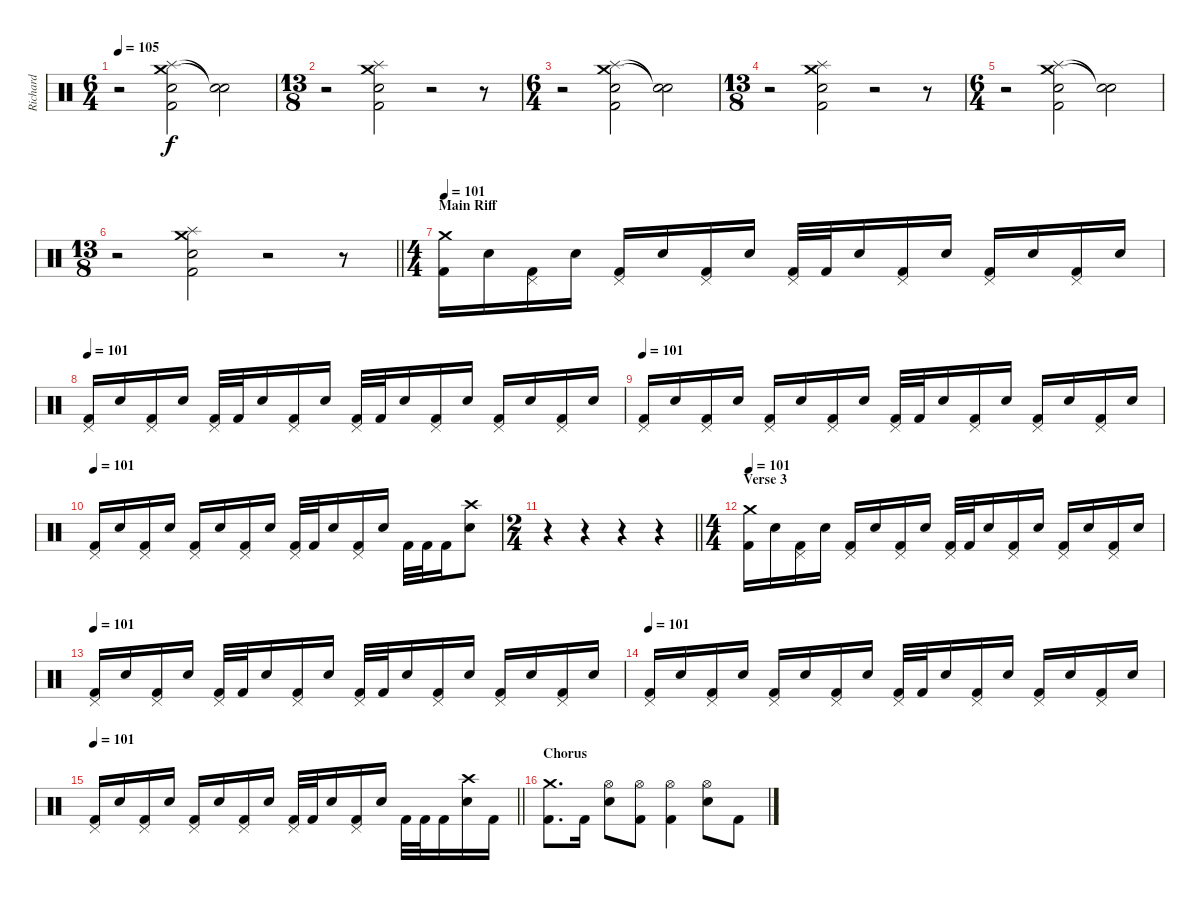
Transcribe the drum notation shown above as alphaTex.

\track ("Richard" "Richard") {instrument percussion}
\staff {score}
\articulation defaults
\ts (6 4)
\tempo 105
\clef neutral
\ks c
r.2{dy f} ("Crash medium (hit)" "Splash (hit)" "Electric Snare (hit)" "Kick (hit) 2").2{volume 16 balance 8} ("Snare (hit)"{t} "Snare (hit)"{t}).2 |
\ts (13 8)
r.2 ("Crash medium (hit)" "Splash (hit)" "Electric Snare (hit)" "Kick (hit) 2").2 r.2 r.8 |
\ts (6 4)
r.2 ("Crash medium (hit)" "Splash (hit)" "Electric Snare (hit)" "Kick (hit) 2").2{volume 16 balance 8} ("Snare (hit)"{t} "Snare (hit)"{t}).2 |
\ts (13 8)
r.2 ("Crash medium (hit)" "Splash (hit)" "Electric Snare (hit)" "Kick (hit) 2").2 r.2 r.8 |
\ts (6 4)
r.2 ("Crash medium (hit)" "Splash (hit)" "Electric Snare (hit)" "Kick (hit) 2").2{volume 16 balance 8} ("Snare (hit)"{t} "Snare (hit)"{t}).2 |
\ts (13 8)
\barLineRight lightlight
r.2 ("Crash medium (hit)" "Splash (hit)" "Electric Snare (hit)" "Kick (hit) 2").2 r.2 r.8 |
\ts (4 4)
\section ("" "Main Riff")
\tempo 101
("Crash medium (hit)" "Kick (hit) 2").16 "Electric Snare (hit)".16 ("Pedal Hi-Hat (hit)" "Kick (hit) 2").16 "Electric Snare (hit)".16 ("Pedal Hi-Hat (hit)" "Kick (hit) 2").16 "Electric Snare (hit)".16 ("Pedal Hi-Hat (hit)" "Kick (hit) 2").16 "Electric Snare (hit)".16 ("Pedal Hi-Hat (hit)" "Kick (hit) 2").32 "Kick (hit) 2".32 "Electric Snare (hit)".16 ("Pedal Hi-Hat (hit)" "Kick (hit) 2").16 "Electric Snare (hit)".16 ("Pedal Hi-Hat (hit)" "Kick (hit) 2").16 "Electric Snare (hit)".16 ("Pedal Hi-Hat (hit)" "Kick (hit) 2").16 "Electric Snare (hit)".16 |
\tempo 101
("Pedal Hi-Hat (hit)" "Kick (hit) 2").16 "Electric Snare (hit)".16 ("Pedal Hi-Hat (hit)" "Kick (hit) 2").16 "Electric Snare (hit)".16 ("Pedal Hi-Hat (hit)" "Kick (hit) 2").32 "Kick (hit) 2".32 "Electric Snare (hit)".16 ("Pedal Hi-Hat (hit)" "Kick (hit) 2").16 "Electric Snare (hit)".16 ("Pedal Hi-Hat (hit)" "Kick (hit) 2").32 "Kick (hit) 2".32 "Electric Snare (hit)".16 ("Pedal Hi-Hat (hit)" "Kick (hit) 2").16 "Electric Snare (hit)".16 ("Pedal Hi-Hat (hit)" "Kick (hit) 2").16 "Electric Snare (hit)".16 ("Pedal Hi-Hat (hit)" "Kick (hit) 2").16 "Electric Snare (hit)".16 |
\tempo 101
("Pedal Hi-Hat (hit)" "Kick (hit) 2").16 "Electric Snare (hit)".16 ("Pedal Hi-Hat (hit)" "Kick (hit) 2").16 "Electric Snare (hit)".16 ("Pedal Hi-Hat (hit)" "Kick (hit) 2").16 "Electric Snare (hit)".16 ("Pedal Hi-Hat (hit)" "Kick (hit) 2").16 "Electric Snare (hit)".16 ("Pedal Hi-Hat (hit)" "Kick (hit) 2").32 "Kick (hit) 2".32 "Electric Snare (hit)".16 ("Pedal Hi-Hat (hit)" "Kick (hit) 2").16 "Electric Snare (hit)".16 ("Pedal Hi-Hat (hit)" "Kick (hit) 2").16 "Electric Snare (hit)".16 ("Pedal Hi-Hat (hit)" "Kick (hit) 2").16 "Electric Snare (hit)".16 |
\tempo 101
("Pedal Hi-Hat (hit)" "Kick (hit) 2").16 "Electric Snare (hit)".16 ("Pedal Hi-Hat (hit)" "Kick (hit) 2").16 "Electric Snare (hit)".16 ("Pedal Hi-Hat (hit)" "Kick (hit) 2").16 "Electric Snare (hit)".16 ("Pedal Hi-Hat (hit)" "Kick (hit) 2").16 "Electric Snare (hit)".16 ("Pedal Hi-Hat (hit)" "Kick (hit) 2").32 "Kick (hit) 2".32 "Electric Snare (hit)".16 ("Pedal Hi-Hat (hit)" "Kick (hit) 2").16 "Electric Snare (hit)".16 "Kick (hit) 2".32 "Kick (hit) 2".32 "Kick (hit) 2".16 ("Crash high (hit)" "Electric Snare (hit)").8 |
\ts (2 4)
\barLineRight lightlight
r.4 r.4 r.4 r.4 |
\ts (4 4)
\section ("" "Verse 3")
\tempo 101
("Crash medium (hit)" "Kick (hit) 2").16 "Electric Snare (hit)".16 ("Pedal Hi-Hat (hit)" "Kick (hit) 2").16 "Electric Snare (hit)".16 ("Pedal Hi-Hat (hit)" "Kick (hit) 2").16 "Electric Snare (hit)".16 ("Pedal Hi-Hat (hit)" "Kick (hit) 2").16 "Electric Snare (hit)".16 ("Pedal Hi-Hat (hit)" "Kick (hit) 2").32 "Kick (hit) 2".32 "Electric Snare (hit)".16 ("Pedal Hi-Hat (hit)" "Kick (hit) 2").16 "Electric Snare (hit)".16 ("Pedal Hi-Hat (hit)" "Kick (hit) 2").16 "Electric Snare (hit)".16 ("Pedal Hi-Hat (hit)" "Kick (hit) 2").16 "Electric Snare (hit)".16 |
\tempo 101
("Pedal Hi-Hat (hit)" "Kick (hit) 2").16 "Electric Snare (hit)".16 ("Pedal Hi-Hat (hit)" "Kick (hit) 2").16 "Electric Snare (hit)".16 ("Pedal Hi-Hat (hit)" "Kick (hit) 2").32 "Kick (hit) 2".32 "Electric Snare (hit)".16 ("Pedal Hi-Hat (hit)" "Kick (hit) 2").16 "Electric Snare (hit)".16 ("Pedal Hi-Hat (hit)" "Kick (hit) 2").32 "Kick (hit) 2".32 "Electric Snare (hit)".16 ("Pedal Hi-Hat (hit)" "Kick (hit) 2").16 "Electric Snare (hit)".16 ("Pedal Hi-Hat (hit)" "Kick (hit) 2").16 "Electric Snare (hit)".16 ("Pedal Hi-Hat (hit)" "Kick (hit) 2").16 "Electric Snare (hit)".16 |
\tempo 101
("Pedal Hi-Hat (hit)" "Kick (hit) 2").16 "Electric Snare (hit)".16 ("Pedal Hi-Hat (hit)" "Kick (hit) 2").16 "Electric Snare (hit)".16 ("Pedal Hi-Hat (hit)" "Kick (hit) 2").16 "Electric Snare (hit)".16 ("Pedal Hi-Hat (hit)" "Kick (hit) 2").16 "Electric Snare (hit)".16 ("Pedal Hi-Hat (hit)" "Kick (hit) 2").32 "Kick (hit) 2".32 "Electric Snare (hit)".16 ("Pedal Hi-Hat (hit)" "Kick (hit) 2").16 "Electric Snare (hit)".16 ("Pedal Hi-Hat (hit)" "Kick (hit) 2").16 "Electric Snare (hit)".16 ("Pedal Hi-Hat (hit)" "Kick (hit) 2").16 "Electric Snare (hit)".16 |
\tempo 101
\barLineRight lightlight
("Pedal Hi-Hat (hit)" "Kick (hit) 2").16 "Electric Snare (hit)".16 ("Pedal Hi-Hat (hit)" "Kick (hit) 2").16 "Electric Snare (hit)".16 ("Pedal Hi-Hat (hit)" "Kick (hit) 2").16 "Electric Snare (hit)".16 ("Pedal Hi-Hat (hit)" "Kick (hit) 2").16 "Electric Snare (hit)".16 ("Pedal Hi-Hat (hit)" "Kick (hit) 2").32 "Kick (hit) 2".32 "Electric Snare (hit)".16 ("Pedal Hi-Hat (hit)" "Kick (hit) 2").16 "Electric Snare (hit)".16 "Kick (hit) 2".32 "Kick (hit) 2".32 "Kick (hit) 2".16 ("Crash high (hit)" "Electric Snare (hit)").16 "Kick (hit) 2".16 |
\section ("" "Chorus")
("Crash medium (hit)" "Kick (hit) 2").8{d} "Kick (hit) 2".16 ("Hi-Hat (open)" "Electric Snare (hit)").8 ("Hi-Hat (open)" "Kick (hit) 2").8 ("Hi-Hat (open)" "Kick (hit) 2").4 ("Hi-Hat (open)" "Electric Snare (hit)").8 "Kick (hit) 2".8
